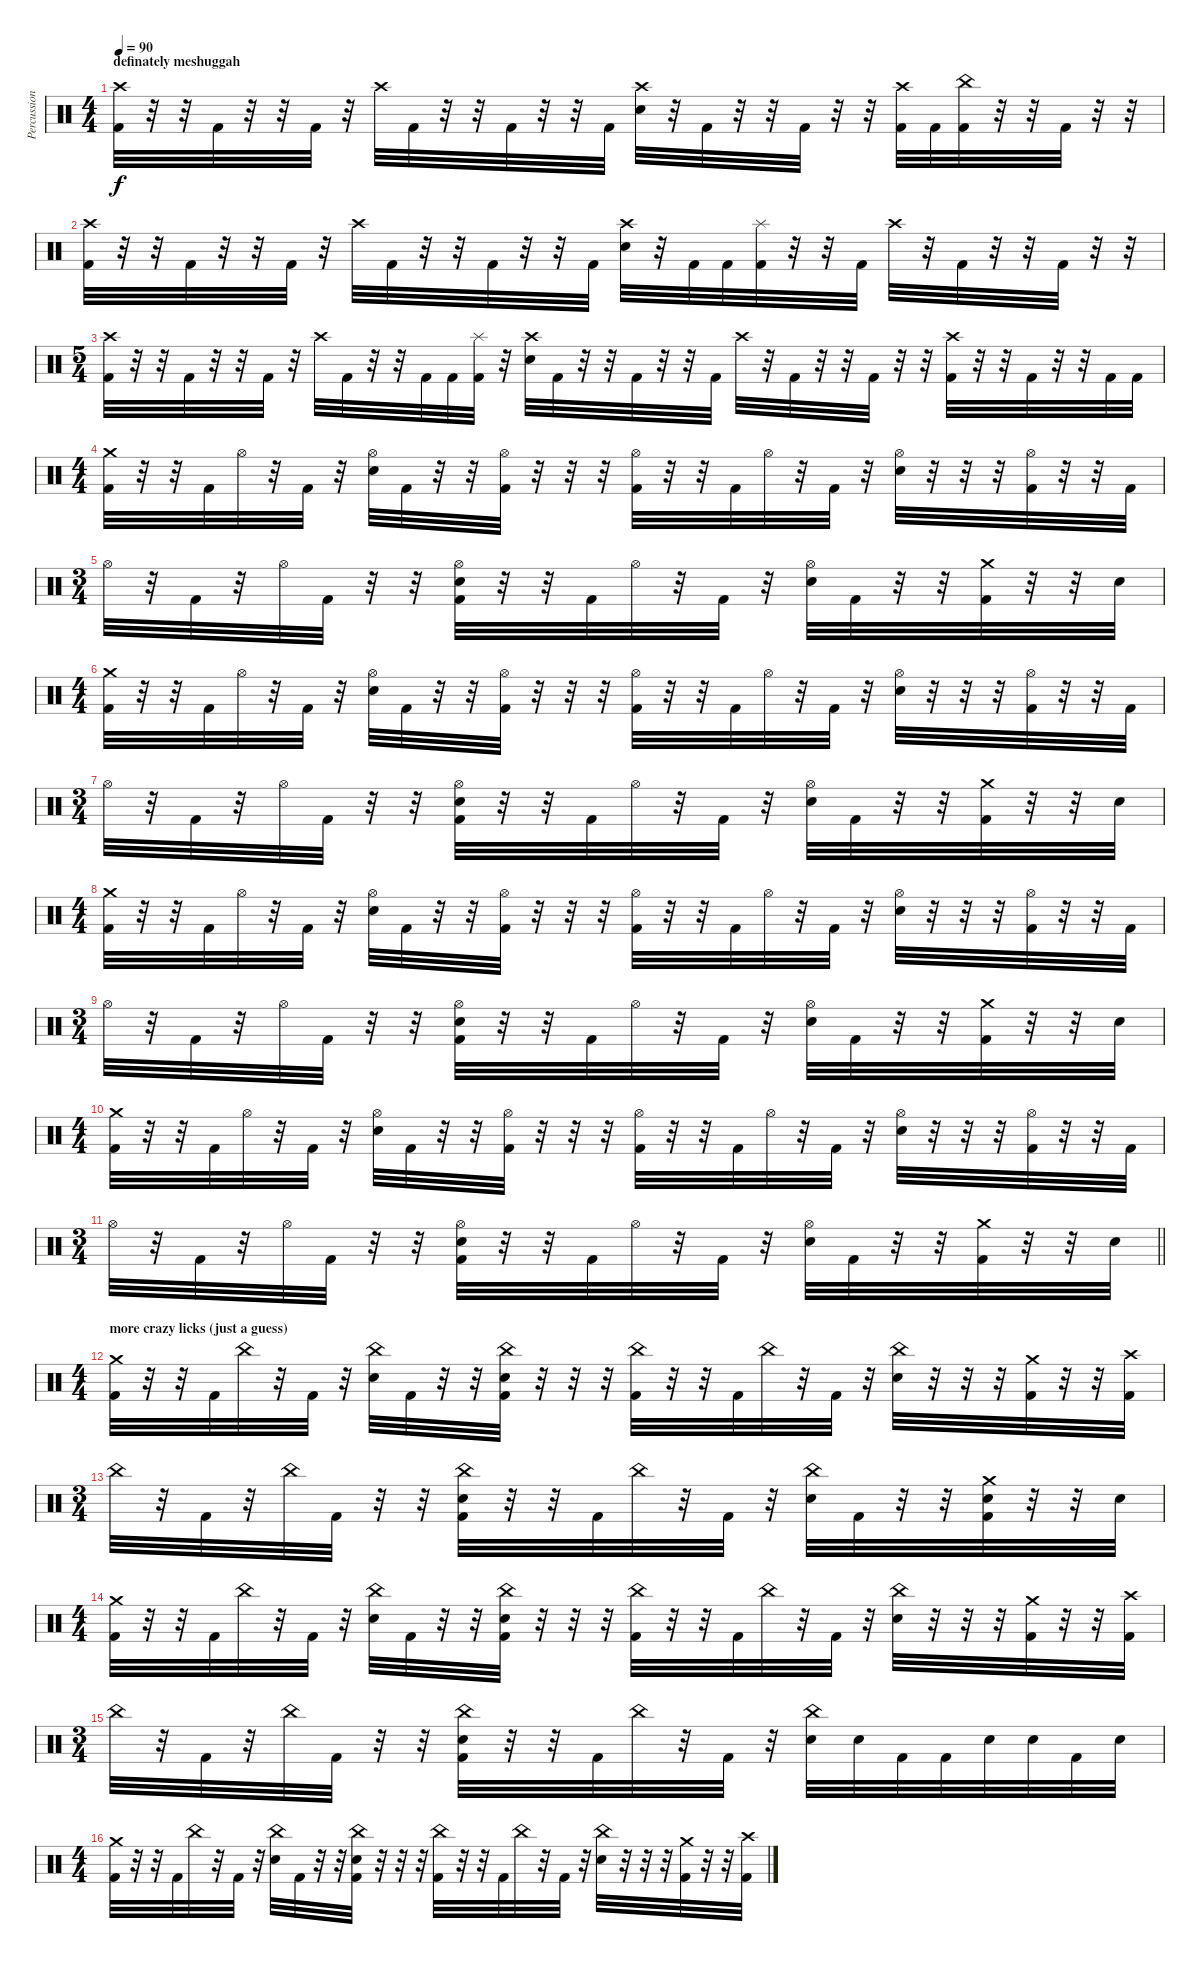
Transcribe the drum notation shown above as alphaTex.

\track ("Percussion" "Percussion") {instrument percussion}
\staff {score}
\articulation defaults
\ts (4 4)
\section ("" "definately meshuggah")
\tempo 90
\clef neutral
\ks c
("Crash high (hit)" "Kick (hit) 2").32{dy f} r.32 r.32 "Kick (hit) 2".32 r.32 r.32 "Kick (hit) 2".32 r.32 "Crash high (hit)".32 "Kick (hit) 2".32 r.32 r.32 "Kick (hit) 2".32 r.32 r.32 "Kick (hit) 2".32 ("Crash high (hit)" "Electric Snare (hit)").32 r.32 "Kick (hit) 2".32 r.32 r.32 "Kick (hit) 2".32 r.32 r.32 ("Crash high (hit)" "Kick (hit) 2").32 "Kick (hit) 2".32 ("China (hit)" "Kick (hit) 2").32 r.32 r.32 "Kick (hit) 2".32 r.32 r.32 |
("Crash high (hit)" "Kick (hit) 2").32 r.32 r.32 "Kick (hit) 2".32 r.32 r.32 "Kick (hit) 2".32 r.32 "Crash high (hit)".32 "Kick (hit) 2".32 r.32 r.32 "Kick (hit) 2".32 r.32 r.32 "Kick (hit) 2".32 ("Crash high (hit)" "Electric Snare (hit)").32 r.32 "Kick (hit) 2".32 "Kick (hit) 2".32 ("Splash (hit)" "Kick (hit) 2").32 r.32 r.32 "Kick (hit) 2".32 "Crash high (hit)".32 r.32 "Kick (hit) 2".32 r.32 r.32 "Kick (hit) 2".32 r.32 r.32 |
\ts (5 4)
("Crash high (hit)" "Kick (hit) 2").32 r.32 r.32 "Kick (hit) 2".32 r.32 r.32 "Kick (hit) 2".32 r.32 "Crash high (hit)".32 "Kick (hit) 2".32 r.32 r.32 "Kick (hit) 2".32 "Kick (hit) 2".32 ("Splash (hit)" "Kick (hit) 2").32 r.32 ("Crash high (hit)" "Electric Snare (hit)").32 "Kick (hit) 2".32 r.32 r.32 "Kick (hit) 2".32 r.32 r.32 "Kick (hit) 2".32 "Crash high (hit)".32 r.32 "Kick (hit) 2".32 r.32 r.32 "Kick (hit) 2".32 r.32 r.32 ("Crash high (hit)" "Kick (hit) 2").32 r.32 r.32 "Kick (hit) 2".32 r.32 r.32 "Kick (hit) 2".32 "Kick (hit) 2".32 |
\ts (4 4)
("Crash medium (hit)" "Kick (hit) 2").32 r.32 r.32 "Kick (hit) 2".32 "Hi-Hat (open)".32 r.32 "Kick (hit) 2".32 r.32 ("Hi-Hat (open)" "Electric Snare (hit)").32 "Kick (hit) 2".32 r.32 r.32 ("Hi-Hat (open)" "Kick (hit) 2").32 r.32 r.32 r.32 ("Hi-Hat (open)" "Kick (hit) 2").32 r.32 r.32 "Kick (hit) 2".32 "Hi-Hat (open)".32 r.32 "Kick (hit) 2".32 r.32 ("Hi-Hat (open)" "Electric Snare (hit)").32 r.32 r.32 r.32 ("Hi-Hat (open)" "Kick (hit) 2").32 r.32 r.32 "Kick (hit) 2".32 |
\ts (3 4)
"Hi-Hat (open)".32 r.32 "Kick (hit) 2".32 r.32 "Hi-Hat (open)".32 "Kick (hit) 2".32 r.32 r.32 ("Hi-Hat (open)" "Electric Snare (hit)" "Kick (hit) 2").32 r.32 r.32 "Kick (hit) 2".32 "Hi-Hat (open)".32 r.32 "Kick (hit) 2".32 r.32 ("Hi-Hat (open)" "Electric Snare (hit)").32 "Kick (hit) 2".32 r.32 r.32 ("Crash medium (hit)" "Kick (hit) 2").32 r.32 r.32 "Electric Snare (hit)".32 |
\ts (4 4)
("Crash medium (hit)" "Kick (hit) 2").32 r.32 r.32 "Kick (hit) 2".32 "Hi-Hat (open)".32 r.32 "Kick (hit) 2".32 r.32 ("Hi-Hat (open)" "Electric Snare (hit)").32 "Kick (hit) 2".32 r.32 r.32 ("Hi-Hat (open)" "Kick (hit) 2").32 r.32 r.32 r.32 ("Hi-Hat (open)" "Kick (hit) 2").32 r.32 r.32 "Kick (hit) 2".32 "Hi-Hat (open)".32 r.32 "Kick (hit) 2".32 r.32 ("Hi-Hat (open)" "Electric Snare (hit)").32 r.32 r.32 r.32 ("Hi-Hat (open)" "Kick (hit) 2").32 r.32 r.32 "Kick (hit) 2".32 |
\ts (3 4)
"Hi-Hat (open)".32 r.32 "Kick (hit) 2".32 r.32 "Hi-Hat (open)".32 "Kick (hit) 2".32 r.32 r.32 ("Hi-Hat (open)" "Electric Snare (hit)" "Kick (hit) 2").32 r.32 r.32 "Kick (hit) 2".32 "Hi-Hat (open)".32 r.32 "Kick (hit) 2".32 r.32 ("Hi-Hat (open)" "Electric Snare (hit)").32 "Kick (hit) 2".32 r.32 r.32 ("Crash medium (hit)" "Kick (hit) 2").32 r.32 r.32 "Electric Snare (hit)".32 |
\ts (4 4)
("Crash medium (hit)" "Kick (hit) 2").32 r.32 r.32 "Kick (hit) 2".32 "Hi-Hat (open)".32 r.32 "Kick (hit) 2".32 r.32 ("Hi-Hat (open)" "Electric Snare (hit)").32 "Kick (hit) 2".32 r.32 r.32 ("Hi-Hat (open)" "Kick (hit) 2").32 r.32 r.32 r.32 ("Hi-Hat (open)" "Kick (hit) 2").32 r.32 r.32 "Kick (hit) 2".32 "Hi-Hat (open)".32 r.32 "Kick (hit) 2".32 r.32 ("Hi-Hat (open)" "Electric Snare (hit)").32 r.32 r.32 r.32 ("Hi-Hat (open)" "Kick (hit) 2").32 r.32 r.32 "Kick (hit) 2".32 |
\ts (3 4)
"Hi-Hat (open)".32 r.32 "Kick (hit) 2".32 r.32 "Hi-Hat (open)".32 "Kick (hit) 2".32 r.32 r.32 ("Hi-Hat (open)" "Electric Snare (hit)" "Kick (hit) 2").32 r.32 r.32 "Kick (hit) 2".32 "Hi-Hat (open)".32 r.32 "Kick (hit) 2".32 r.32 ("Hi-Hat (open)" "Electric Snare (hit)").32 "Kick (hit) 2".32 r.32 r.32 ("Crash medium (hit)" "Kick (hit) 2").32 r.32 r.32 "Electric Snare (hit)".32 |
\ts (4 4)
("Crash medium (hit)" "Kick (hit) 2").32 r.32 r.32 "Kick (hit) 2".32 "Hi-Hat (open)".32 r.32 "Kick (hit) 2".32 r.32 ("Hi-Hat (open)" "Electric Snare (hit)").32 "Kick (hit) 2".32 r.32 r.32 ("Hi-Hat (open)" "Kick (hit) 2").32 r.32 r.32 r.32 ("Hi-Hat (open)" "Kick (hit) 2").32 r.32 r.32 "Kick (hit) 2".32 "Hi-Hat (open)".32 r.32 "Kick (hit) 2".32 r.32 ("Hi-Hat (open)" "Electric Snare (hit)").32 r.32 r.32 r.32 ("Hi-Hat (open)" "Kick (hit) 2").32 r.32 r.32 "Kick (hit) 2".32 |
\ts (3 4)
\barLineRight lightlight "Hi-Hat (open)".32
r.32 "Kick (hit) 2".32 r.32 "Hi-Hat (open)".32 "Kick (hit) 2".32 r.32 r.32 ("Hi-Hat (open)" "Electric Snare (hit)" "Kick (hit) 2").32 r.32 r.32 "Kick (hit) 2".32 "Hi-Hat (open)".32 r.32 "Kick (hit) 2".32 r.32 ("Hi-Hat (open)" "Electric Snare (hit)").32 "Kick (hit) 2".32 r.32 r.32 ("Crash medium (hit)" "Kick (hit) 2").32 r.32 r.32 "Electric Snare (hit)".32 |
\ts (4 4)
\section ("" "more crazy licks (just a guess)")
("Crash medium (hit)" "Kick (hit) 2").32 r.32 r.32 "Kick (hit) 2".32 "China (hit)".32 r.32 "Kick (hit) 2".32 r.32 ("China (hit)" "Electric Snare (hit)").32 "Kick (hit) 2".32 r.32 r.32 ("China (hit)" "Electric Snare (hit)" "Kick (hit) 2").32 r.32 r.32 r.32 ("China (hit)" "Kick (hit) 2").32 r.32 r.32 "Kick (hit) 2".32 "China (hit)".32 r.32 "Kick (hit) 2".32 r.32 ("China (hit)" "Electric Snare (hit)").32 r.32 r.32 r.32 ("Crash medium (hit)" "Kick (hit) 2").32 r.32 r.32 ("Crash high (hit)" "Kick (hit) 2").32 |
\ts (3 4)
"China (hit)".32 r.32 "Kick (hit) 2".32 r.32 "China (hit)".32 "Kick (hit) 2".32 r.32 r.32 ("China (hit)" "Electric Snare (hit)" "Kick (hit) 2").32 r.32 r.32 "Kick (hit) 2".32 "China (hit)".32 r.32 "Kick (hit) 2".32 r.32 ("China (hit)" "Electric Snare (hit)").32 "Kick (hit) 2".32 r.32 r.32 ("Crash medium (hit)" "Electric Snare (hit)" "Kick (hit) 2").32 r.32 r.32 "Electric Snare (hit)".32 |
\ts (4 4)
("Crash medium (hit)" "Kick (hit) 2").32 r.32 r.32 "Kick (hit) 2".32 "China (hit)".32 r.32 "Kick (hit) 2".32 r.32 ("China (hit)" "Electric Snare (hit)").32 "Kick (hit) 2".32 r.32 r.32 ("China (hit)" "Electric Snare (hit)" "Kick (hit) 2").32 r.32 r.32 r.32 ("China (hit)" "Kick (hit) 2").32 r.32 r.32 "Kick (hit) 2".32 "China (hit)".32 r.32 "Kick (hit) 2".32 r.32 ("China (hit)" "Electric Snare (hit)").32 r.32 r.32 r.32 ("Crash medium (hit)" "Kick (hit) 2").32 r.32 r.32 ("Crash high (hit)" "Kick (hit) 2").32 |
\ts (3 4)
"China (hit)".32 r.32 "Kick (hit) 2".32 r.32 "China (hit)".32 "Kick (hit) 2".32 r.32 r.32 ("China (hit)" "Electric Snare (hit)" "Kick (hit) 2").32 r.32 r.32 "Kick (hit) 2".32 "China (hit)".32 r.32 "Kick (hit) 2".32 r.32 ("China (hit)" "Electric Snare (hit)").32 "Electric Snare (hit)".32 "Kick (hit) 2".32 "Kick (hit) 2".32 "Electric Snare (hit)".32 "Electric Snare (hit)".32 "Kick (hit) 2".32 "Electric Snare (hit)".32 |
\ts (4 4)
("Crash medium (hit)" "Kick (hit) 2").32 r.32 r.32 "Kick (hit) 2".32 "China (hit)".32 r.32 "Kick (hit) 2".32 r.32 ("China (hit)" "Electric Snare (hit)").32 "Kick (hit) 2".32 r.32 r.32 ("China (hit)" "Electric Snare (hit)" "Kick (hit) 2").32 r.32 r.32 r.32 ("China (hit)" "Kick (hit) 2").32 r.32 r.32 "Kick (hit) 2".32 "China (hit)".32 r.32 "Kick (hit) 2".32 r.32 ("China (hit)" "Electric Snare (hit)").32 r.32 r.32 r.32 ("Crash medium (hit)" "Kick (hit) 2").32 r.32 r.32 ("Crash high (hit)" "Kick (hit) 2").32
